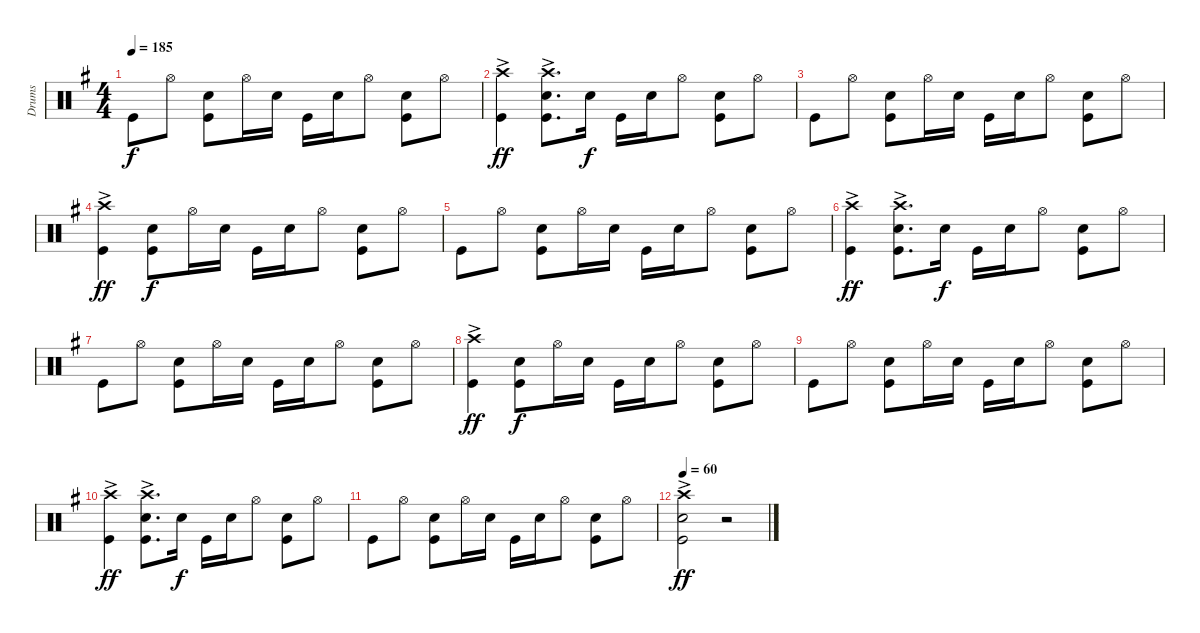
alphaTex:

\track ("Drums" "Drums") {instrument percussion}
\staff {score}
\articulation defaults
\ts (4 4)
\tempo 185
\clef neutral
\ks g "Kick (hit)".8{dy f} "Hi-Hat (open)".8
("Snare (hit) 2" "Kick (hit)").8 "Hi-Hat (open)".16 "Snare (hit) 2".16 "Kick (hit)".16 "Snare (hit) 2".16 "Hi-Hat (open)".8 ("Snare (hit) 2" "Kick (hit)").8 "Hi-Hat (open)".8 |
("Crash high (hit)"{ac} "Kick (hit)").4{dy ff} ("Crash high (hit)"{ac} "Snare (hit) 2" "Kick (hit)").8{d} "Snare (hit) 2".16{dy f} "Kick (hit)".16 "Snare (hit) 2".16 "Hi-Hat (open)".8 ("Snare (hit) 2" "Kick (hit)").8 "Hi-Hat (open)".8 |
"Kick (hit)".8 "Hi-Hat (open)".8 ("Snare (hit) 2" "Kick (hit)").8 "Hi-Hat (open)".16 "Snare (hit) 2".16 "Kick (hit)".16 "Snare (hit) 2".16 "Hi-Hat (open)".8 ("Snare (hit) 2" "Kick (hit)").8 "Hi-Hat (open)".8 |
("Crash high (hit)"{ac} "Kick (hit)").4{dy ff} ("Snare (hit) 2" "Kick (hit)").8{dy f} "Hi-Hat (open)".16 "Snare (hit) 2".16 "Kick (hit)".16 "Snare (hit) 2".16 "Hi-Hat (open)".8 ("Snare (hit) 2" "Kick (hit)").8 "Hi-Hat (open)".8 |
"Kick (hit)".8 "Hi-Hat (open)".8 ("Snare (hit) 2" "Kick (hit)").8 "Hi-Hat (open)".16 "Snare (hit) 2".16 "Kick (hit)".16 "Snare (hit) 2".16 "Hi-Hat (open)".8 ("Snare (hit) 2" "Kick (hit)").8 "Hi-Hat (open)".8 |
("Crash high (hit)"{ac} "Kick (hit)").4{dy ff} ("Crash high (hit)"{ac} "Snare (hit) 2" "Kick (hit)").8{d} "Snare (hit) 2".16{dy f} "Kick (hit)".16 "Snare (hit) 2".16 "Hi-Hat (open)".8 ("Snare (hit) 2" "Kick (hit)").8 "Hi-Hat (open)".8 |
"Kick (hit)".8 "Hi-Hat (open)".8 ("Snare (hit) 2" "Kick (hit)").8 "Hi-Hat (open)".16 "Snare (hit) 2".16 "Kick (hit)".16 "Snare (hit) 2".16 "Hi-Hat (open)".8 ("Snare (hit) 2" "Kick (hit)").8 "Hi-Hat (open)".8 |
("Crash high (hit)"{ac} "Kick (hit)").4{dy ff} ("Snare (hit) 2" "Kick (hit)").8{dy f} "Hi-Hat (open)".16 "Snare (hit) 2".16 "Kick (hit)".16 "Snare (hit) 2".16 "Hi-Hat (open)".8 ("Snare (hit) 2" "Kick (hit)").8 "Hi-Hat (open)".8 |
"Kick (hit)".8 "Hi-Hat (open)".8 ("Snare (hit) 2" "Kick (hit)").8 "Hi-Hat (open)".16 "Snare (hit) 2".16 "Kick (hit)".16 "Snare (hit) 2".16 "Hi-Hat (open)".8 ("Snare (hit) 2" "Kick (hit)").8 "Hi-Hat (open)".8 |
("Crash high (hit)"{ac} "Kick (hit)").4{dy ff} ("Crash high (hit)"{ac} "Snare (hit) 2" "Kick (hit)").8{d} "Snare (hit) 2".16{dy f} "Kick (hit)".16 "Snare (hit) 2".16 "Hi-Hat (open)".8 ("Snare (hit) 2" "Kick (hit)").8 "Hi-Hat (open)".8 |
"Kick (hit)".8 "Hi-Hat (open)".8 ("Snare (hit) 2" "Kick (hit)").8 "Hi-Hat (open)".16 "Snare (hit) 2".16 "Kick (hit)".16 "Snare (hit) 2".16 "Hi-Hat (open)".8 ("Snare (hit) 2" "Kick (hit)").8 "Hi-Hat (open)".8 |
\tempo 60
("Crash high (hit)"{ac} "Snare (hit) 2" "Kick (hit)").2{dy ff} r.2
